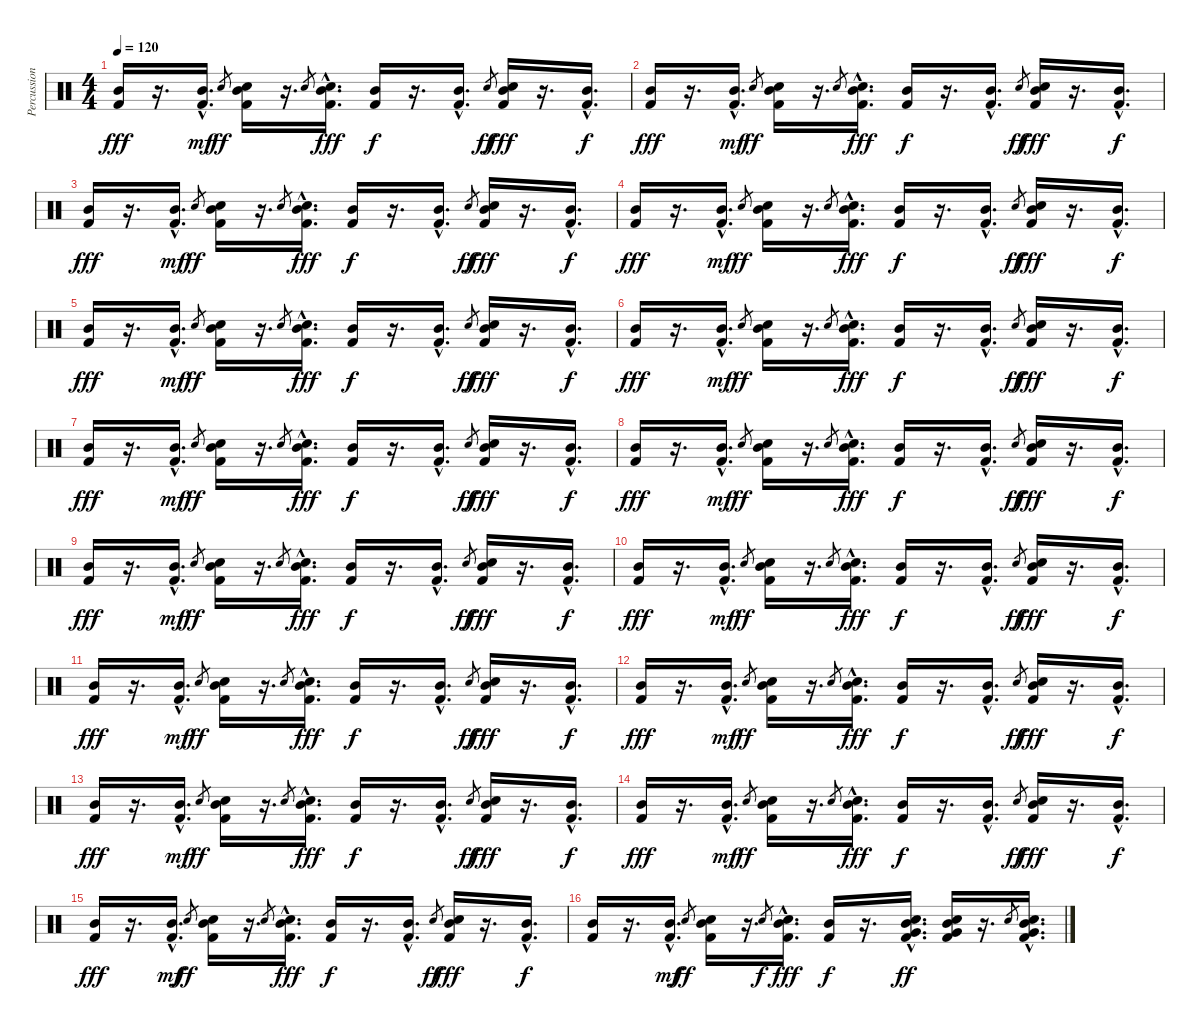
\track ("Percussion" "Percussion") {instrument percussion}
\staff {score}
\articulation defaults
\ts (4 4)
\tempo 120
\clef neutral
\ks c
("Mid Tom (hit)" "Kick (hit) 2").16{dy fff} r.16{d} ("Mid Tom (hit)"{hac} "Kick (hit) 2"{hac}).16{d dy mf} "Hand Clap (hit)".8{gr dy ff} ("Mid Tom (hit)" "Snare (hit) 2" "Kick (hit) 2").16 r.16{d} "Hand Clap (hit)".8{gr} ("Mid Tom (hit)"{hac} "Snare (hit) 2"{hac} "Kick (hit) 2"{hac}).16{d dy fff} ("Mid Tom (hit)" "Kick (hit) 2").16{dy f} r.16{d} ("Mid Tom (hit)"{hac} "Kick (hit) 2"{hac}).16{d} "Hand Clap (hit)".8{gr dy ff} ("Mid Tom (hit)" "Snare (hit) 2" "Kick (hit) 2").16{dy fff} r.16{d} ("Mid Tom (hit)" "Kick (hit) 2"{hac}).16{d dy f balance 8} |
("Mid Tom (hit)" "Kick (hit) 2").16{dy fff} r.16{d} ("Mid Tom (hit)"{hac} "Kick (hit) 2"{hac}).16{d dy mf} "Hand Clap (hit)".8{gr dy ff} ("Mid Tom (hit)" "Snare (hit) 2" "Kick (hit) 2").16 r.16{d} "Hand Clap (hit)".8{gr} ("Mid Tom (hit)"{hac} "Snare (hit) 2"{hac} "Kick (hit) 2"{hac}).16{d dy fff} ("Mid Tom (hit)" "Kick (hit) 2").16{dy f} r.16{d} ("Mid Tom (hit)"{hac} "Kick (hit) 2"{hac}).16{d} "Hand Clap (hit)".8{gr dy ff} ("Mid Tom (hit)" "Snare (hit) 2" "Kick (hit) 2").16{dy fff} r.16{d} ("Mid Tom (hit)" "Kick (hit) 2"{hac}).16{d dy f} |
("Mid Tom (hit)" "Kick (hit) 2").16{dy fff} r.16{d} ("Mid Tom (hit)"{hac} "Kick (hit) 2"{hac}).16{d dy mf} "Hand Clap (hit)".8{gr dy ff} ("Mid Tom (hit)" "Snare (hit) 2" "Kick (hit) 2").16 r.16{d} "Hand Clap (hit)".8{gr} ("Mid Tom (hit)"{hac} "Snare (hit) 2"{hac} "Kick (hit) 2"{hac}).16{d dy fff} ("Mid Tom (hit)" "Kick (hit) 2").16{dy f} r.16{d} ("Mid Tom (hit)"{hac} "Kick (hit) 2"{hac}).16{d} "Hand Clap (hit)".8{gr dy ff} ("Mid Tom (hit)" "Snare (hit) 2" "Kick (hit) 2").16{dy fff} r.16{d} ("Mid Tom (hit)" "Kick (hit) 2"{hac}).16{d dy f} |
("Mid Tom (hit)" "Kick (hit) 2").16{dy fff} r.16{d} ("Mid Tom (hit)"{hac} "Kick (hit) 2"{hac}).16{d dy mf} "Hand Clap (hit)".8{gr dy ff} ("Mid Tom (hit)" "Snare (hit) 2" "Kick (hit) 2").16 r.16{d} "Hand Clap (hit)".8{gr} ("Mid Tom (hit)"{hac} "Snare (hit) 2"{hac} "Kick (hit) 2"{hac}).16{d dy fff} ("Mid Tom (hit)" "Kick (hit) 2").16{dy f} r.16{d} ("Mid Tom (hit)"{hac} "Kick (hit) 2"{hac}).16{d} "Hand Clap (hit)".8{gr dy ff} ("Mid Tom (hit)" "Snare (hit) 2" "Kick (hit) 2").16{dy fff} r.16{d} ("Mid Tom (hit)" "Kick (hit) 2"{hac}).16{d dy f} |
("Mid Tom (hit)" "Kick (hit) 2").16{dy fff} r.16{d} ("Mid Tom (hit)"{hac} "Kick (hit) 2"{hac}).16{d dy mf} "Hand Clap (hit)".8{gr dy ff} ("Mid Tom (hit)" "Snare (hit) 2" "Kick (hit) 2").16 r.16{d} "Hand Clap (hit)".8{gr} ("Mid Tom (hit)"{hac} "Snare (hit) 2"{hac} "Kick (hit) 2"{hac}).16{d dy fff} ("Mid Tom (hit)" "Kick (hit) 2").16{dy f} r.16{d} ("Mid Tom (hit)"{hac} "Kick (hit) 2"{hac}).16{d} "Hand Clap (hit)".8{gr dy ff} ("Mid Tom (hit)" "Snare (hit) 2" "Kick (hit) 2").16{dy fff} r.16{d} ("Mid Tom (hit)" "Kick (hit) 2"{hac}).16{d dy f} |
("Mid Tom (hit)" "Kick (hit) 2").16{dy fff} r.16{d} ("Mid Tom (hit)"{hac} "Kick (hit) 2"{hac}).16{d dy mf} "Hand Clap (hit)".8{gr dy ff} ("Mid Tom (hit)" "Snare (hit) 2" "Kick (hit) 2").16 r.16{d} "Hand Clap (hit)".8{gr} ("Mid Tom (hit)"{hac} "Snare (hit) 2"{hac} "Kick (hit) 2"{hac}).16{d dy fff} ("Mid Tom (hit)" "Kick (hit) 2").16{dy f} r.16{d} ("Mid Tom (hit)"{hac} "Kick (hit) 2"{hac}).16{d} "Hand Clap (hit)".8{gr dy ff} ("Mid Tom (hit)" "Snare (hit) 2" "Kick (hit) 2").16{dy fff} r.16{d} ("Mid Tom (hit)" "Kick (hit) 2"{hac}).16{d dy f} |
("Mid Tom (hit)" "Kick (hit) 2").16{dy fff} r.16{d} ("Mid Tom (hit)"{hac} "Kick (hit) 2"{hac}).16{d dy mf} "Hand Clap (hit)".8{gr dy ff} ("Mid Tom (hit)" "Snare (hit) 2" "Kick (hit) 2").16 r.16{d} "Hand Clap (hit)".8{gr} ("Mid Tom (hit)"{hac} "Snare (hit) 2"{hac} "Kick (hit) 2"{hac}).16{d dy fff} ("Mid Tom (hit)" "Kick (hit) 2").16{dy f} r.16{d} ("Mid Tom (hit)"{hac} "Kick (hit) 2"{hac}).16{d} "Hand Clap (hit)".8{gr dy ff} ("Mid Tom (hit)" "Snare (hit) 2" "Kick (hit) 2").16{dy fff} r.16{d} ("Mid Tom (hit)" "Kick (hit) 2"{hac}).16{d dy f} |
("Mid Tom (hit)" "Kick (hit) 2").16{dy fff} r.16{d} ("Mid Tom (hit)"{hac} "Kick (hit) 2"{hac}).16{d dy mf} "Hand Clap (hit)".8{gr dy ff} ("Mid Tom (hit)" "Snare (hit) 2" "Kick (hit) 2").16 r.16{d} "Hand Clap (hit)".8{gr} ("Mid Tom (hit)"{hac} "Snare (hit) 2"{hac} "Kick (hit) 2"{hac}).16{d dy fff} ("Mid Tom (hit)" "Kick (hit) 2").16{dy f} r.16{d} ("Mid Tom (hit)"{hac} "Kick (hit) 2"{hac}).16{d} "Hand Clap (hit)".8{gr dy ff} ("Mid Tom (hit)" "Snare (hit) 2" "Kick (hit) 2").16{dy fff} r.16{d} ("Mid Tom (hit)" "Kick (hit) 2"{hac}).16{d dy f} |
("Mid Tom (hit)" "Kick (hit) 2").16{dy fff} r.16{d} ("Mid Tom (hit)"{hac} "Kick (hit) 2"{hac}).16{d dy mf} "Hand Clap (hit)".8{gr dy ff} ("Mid Tom (hit)" "Snare (hit) 2" "Kick (hit) 2").16 r.16{d} "Hand Clap (hit)".8{gr} ("Mid Tom (hit)"{hac} "Snare (hit) 2"{hac} "Kick (hit) 2"{hac}).16{d dy fff} ("Mid Tom (hit)" "Kick (hit) 2").16{dy f} r.16{d} ("Mid Tom (hit)"{hac} "Kick (hit) 2"{hac}).16{d} "Hand Clap (hit)".8{gr dy ff} ("Mid Tom (hit)" "Snare (hit) 2" "Kick (hit) 2").16{dy fff} r.16{d} ("Mid Tom (hit)" "Kick (hit) 2"{hac}).16{d dy f} |
("Mid Tom (hit)" "Kick (hit) 2").16{dy fff} r.16{d} ("Mid Tom (hit)"{hac} "Kick (hit) 2"{hac}).16{d dy mf} "Hand Clap (hit)".8{gr dy ff} ("Mid Tom (hit)" "Snare (hit) 2" "Kick (hit) 2").16 r.16{d} "Hand Clap (hit)".8{gr} ("Mid Tom (hit)"{hac} "Snare (hit) 2"{hac} "Kick (hit) 2"{hac}).16{d dy fff} ("Mid Tom (hit)" "Kick (hit) 2").16{dy f} r.16{d} ("Mid Tom (hit)"{hac} "Kick (hit) 2"{hac}).16{d} "Hand Clap (hit)".8{gr dy ff} ("Mid Tom (hit)" "Snare (hit) 2" "Kick (hit) 2").16{dy fff} r.16{d} ("Mid Tom (hit)" "Kick (hit) 2"{hac}).16{d dy f} |
("Mid Tom (hit)" "Kick (hit) 2").16{dy fff} r.16{d} ("Mid Tom (hit)"{hac} "Kick (hit) 2"{hac}).16{d dy mf} "Hand Clap (hit)".8{gr dy ff} ("Mid Tom (hit)" "Snare (hit) 2" "Kick (hit) 2").16 r.16{d} "Hand Clap (hit)".8{gr} ("Mid Tom (hit)"{hac} "Snare (hit) 2"{hac} "Kick (hit) 2"{hac}).16{d dy fff} ("Mid Tom (hit)" "Kick (hit) 2").16{dy f} r.16{d} ("Mid Tom (hit)"{hac} "Kick (hit) 2"{hac}).16{d} "Hand Clap (hit)".8{gr dy ff} ("Mid Tom (hit)" "Snare (hit) 2" "Kick (hit) 2").16{dy fff} r.16{d} ("Mid Tom (hit)" "Kick (hit) 2"{hac}).16{d dy f} |
("Mid Tom (hit)" "Kick (hit) 2").16{dy fff} r.16{d} ("Mid Tom (hit)"{hac} "Kick (hit) 2"{hac}).16{d dy mf} "Hand Clap (hit)".8{gr dy ff} ("Mid Tom (hit)" "Snare (hit) 2" "Kick (hit) 2").16 r.16{d} "Hand Clap (hit)".8{gr} ("Mid Tom (hit)"{hac} "Snare (hit) 2"{hac} "Kick (hit) 2"{hac}).16{d dy fff} ("Mid Tom (hit)" "Kick (hit) 2").16{dy f} r.16{d} ("Mid Tom (hit)"{hac} "Kick (hit) 2"{hac}).16{d} "Hand Clap (hit)".8{gr dy ff} ("Mid Tom (hit)" "Snare (hit) 2" "Kick (hit) 2").16{dy fff} r.16{d} ("Mid Tom (hit)" "Kick (hit) 2"{hac}).16{d dy f} |
("Mid Tom (hit)" "Kick (hit) 2").16{dy fff} r.16{d} ("Mid Tom (hit)"{hac} "Kick (hit) 2"{hac}).16{d dy mf} "Hand Clap (hit)".8{gr dy ff} ("Mid Tom (hit)" "Snare (hit) 2" "Kick (hit) 2").16 r.16{d} "Hand Clap (hit)".8{gr} ("Mid Tom (hit)"{hac} "Snare (hit) 2"{hac} "Kick (hit) 2"{hac}).16{d dy fff} ("Mid Tom (hit)" "Kick (hit) 2").16{dy f} r.16{d} ("Mid Tom (hit)"{hac} "Kick (hit) 2"{hac}).16{d} "Hand Clap (hit)".8{gr dy ff} ("Mid Tom (hit)" "Snare (hit) 2" "Kick (hit) 2").16{dy fff} r.16{d} ("Mid Tom (hit)" "Kick (hit) 2"{hac}).16{d dy f} |
("Mid Tom (hit)" "Kick (hit) 2").16{dy fff} r.16{d} ("Mid Tom (hit)"{hac} "Kick (hit) 2"{hac}).16{d dy mf} "Hand Clap (hit)".8{gr dy ff} ("Mid Tom (hit)" "Snare (hit) 2" "Kick (hit) 2").16 r.16{d} "Hand Clap (hit)".8{gr} ("Mid Tom (hit)"{hac} "Snare (hit) 2"{hac} "Kick (hit) 2"{hac}).16{d dy fff} ("Mid Tom (hit)" "Kick (hit) 2").16{dy f} r.16{d} ("Mid Tom (hit)"{hac} "Kick (hit) 2"{hac}).16{d} "Hand Clap (hit)".8{gr dy ff} ("Mid Tom (hit)" "Snare (hit) 2" "Kick (hit) 2").16{dy fff} r.16{d} ("Mid Tom (hit)" "Kick (hit) 2"{hac}).16{d dy f} |
("Mid Tom (hit)" "Kick (hit) 2").16{dy fff} r.16{d} ("Mid Tom (hit)"{hac} "Kick (hit) 2"{hac}).16{d dy mf} "Hand Clap (hit)".8{gr dy ff} ("Mid Tom (hit)" "Snare (hit) 2" "Kick (hit) 2").16 r.16{d} "Hand Clap (hit)".8{gr} ("Mid Tom (hit)"{hac} "Snare (hit) 2"{hac} "Kick (hit) 2"{hac}).16{d dy fff} ("Mid Tom (hit)" "Kick (hit) 2").16{dy f} r.16{d} ("Mid Tom (hit)"{hac} "Kick (hit) 2"{hac}).16{d} "Hand Clap (hit)".8{gr dy ff} ("Mid Tom (hit)" "Snare (hit) 2" "Kick (hit) 2").16{dy fff} r.16{d} ("Mid Tom (hit)" "Kick (hit) 2"{hac}).16{d dy f} |
("Mid Tom (hit)" "Kick (hit) 2").16 r.16{d} ("Mid Tom (hit)"{hac} "Kick (hit) 2"{hac}).16{d dy mf} "Hand Clap (hit)".8{gr dy ff} ("Mid Tom (hit)" "Snare (hit) 2" "Kick (hit) 2").16 r.16{d} "Hand Clap (hit)".8{gr dy f} ("Mid Tom (hit)"{hac} "Snare (hit) 2"{hac} "Kick (hit) 2"{hac}).16{d dy fff} ("Mid Tom (hit)" "Kick (hit) 2").16{dy f} r.16{d} ("Mid Tom (hit)"{hac} "Snare (hit) 2"{hac} "Very Low Tom (hit)"{hac} "Kick (hit) 2"{hac}).16{d dy ff} ("Mid Tom (hit)" "Snare (hit) 2" "Very Low Tom (hit)" "Kick (hit) 2").16 r.16{d} "Hand Clap (hit)".8{gr} ("Mid Tom (hit)" "Snare (hit) 2"{hac} "Very Low Tom (hit)"{hac} "Kick (hit) 2"{hac}).16{d}
